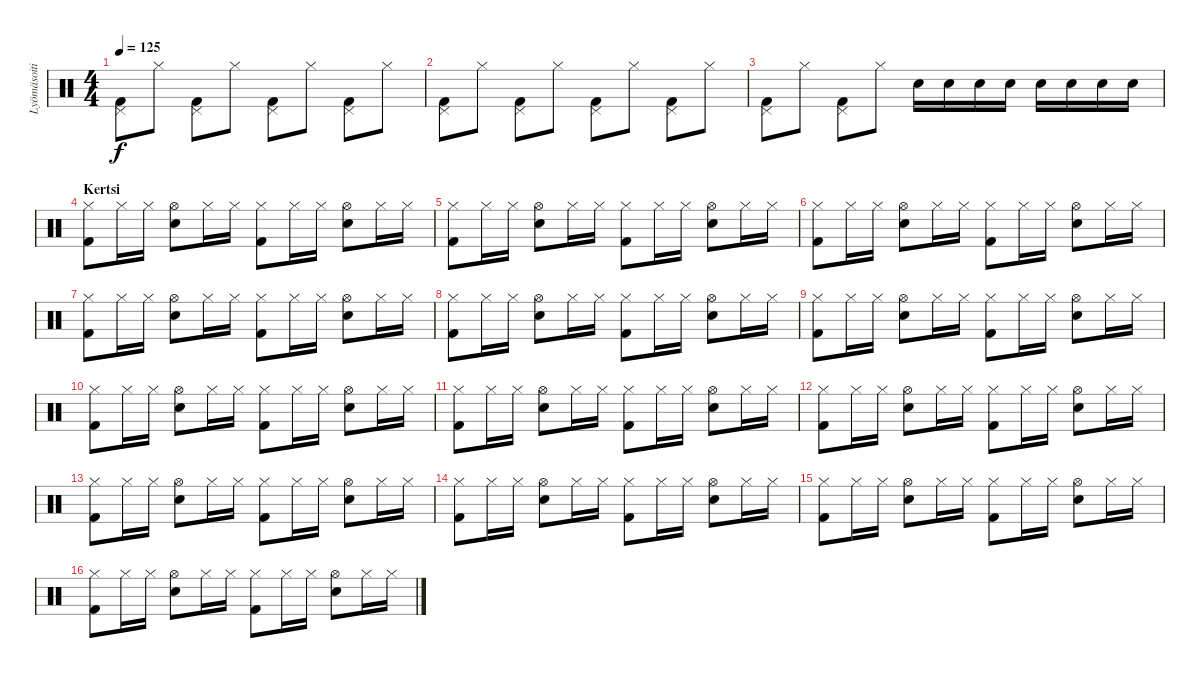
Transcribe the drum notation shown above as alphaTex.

\track ("Lyömäsoitin" "Lyömäsoiti") {instrument percussion}
\staff {score}
\articulation defaults
\ts (4 4)
\tempo 125
\clef neutral
\ks c
("Pedal Hi-Hat (hit)" "Kick (hit) 2").8{dy f} "Hi-Hat (closed)".8 ("Pedal Hi-Hat (hit)" "Kick (hit) 2").8 "Hi-Hat (closed)".8 ("Pedal Hi-Hat (hit)" "Kick (hit) 2").8 "Hi-Hat (closed)".8 ("Pedal Hi-Hat (hit)" "Kick (hit) 2").8 "Hi-Hat (closed)".8 |
("Pedal Hi-Hat (hit)" "Kick (hit) 2").8 "Hi-Hat (closed)".8 ("Pedal Hi-Hat (hit)" "Kick (hit) 2").8 "Hi-Hat (closed)".8 ("Pedal Hi-Hat (hit)" "Kick (hit) 2").8 "Hi-Hat (closed)".8 ("Pedal Hi-Hat (hit)" "Kick (hit) 2").8 "Hi-Hat (closed)".8 |
("Pedal Hi-Hat (hit)" "Kick (hit) 2").8 "Hi-Hat (closed)".8 ("Pedal Hi-Hat (hit)" "Kick (hit) 2").8 "Hi-Hat (closed)".8 "Snare (hit) 2".16 "Snare (hit) 2".16 "Snare (hit) 2".16 "Snare (hit) 2".16 "Snare (hit) 2".16 "Snare (hit) 2".16 "Snare (hit) 2".16 "Snare (hit) 2".16 |
\section ("" "Kertsi")
("Hi-Hat (closed)" "Kick (hit) 2").8 "Hi-Hat (closed)".16 "Hi-Hat (closed)".16 ("Hi-Hat (open)" "Snare (hit) 2").8 "Hi-Hat (closed)".16 "Hi-Hat (closed)".16 ("Hi-Hat (closed)" "Kick (hit) 2").8 "Hi-Hat (closed)".16 "Hi-Hat (closed)".16 ("Hi-Hat (open)" "Snare (hit) 2").8 "Hi-Hat (closed)".16 "Hi-Hat (closed)".16 |
("Hi-Hat (closed)" "Kick (hit) 2").8 "Hi-Hat (closed)".16 "Hi-Hat (closed)".16 ("Hi-Hat (open)" "Snare (hit) 2").8 "Hi-Hat (closed)".16 "Hi-Hat (closed)".16 ("Hi-Hat (closed)" "Kick (hit) 2").8 "Hi-Hat (closed)".16 "Hi-Hat (closed)".16 ("Hi-Hat (open)" "Snare (hit) 2").8 "Hi-Hat (closed)".16 "Hi-Hat (closed)".16 |
("Hi-Hat (closed)" "Kick (hit) 2").8 "Hi-Hat (closed)".16 "Hi-Hat (closed)".16 ("Hi-Hat (open)" "Snare (hit) 2").8 "Hi-Hat (closed)".16 "Hi-Hat (closed)".16 ("Hi-Hat (closed)" "Kick (hit) 2").8 "Hi-Hat (closed)".16 "Hi-Hat (closed)".16 ("Hi-Hat (open)" "Snare (hit) 2").8 "Hi-Hat (closed)".16 "Hi-Hat (closed)".16 |
("Hi-Hat (closed)" "Kick (hit) 2").8 "Hi-Hat (closed)".16 "Hi-Hat (closed)".16 ("Hi-Hat (open)" "Snare (hit) 2").8 "Hi-Hat (closed)".16 "Hi-Hat (closed)".16 ("Hi-Hat (closed)" "Kick (hit) 2").8 "Hi-Hat (closed)".16 "Hi-Hat (closed)".16 ("Hi-Hat (open)" "Snare (hit) 2").8 "Hi-Hat (closed)".16 "Hi-Hat (closed)".16 |
("Hi-Hat (closed)" "Kick (hit) 2").8 "Hi-Hat (closed)".16 "Hi-Hat (closed)".16 ("Hi-Hat (open)" "Snare (hit) 2").8 "Hi-Hat (closed)".16 "Hi-Hat (closed)".16 ("Hi-Hat (closed)" "Kick (hit) 2").8 "Hi-Hat (closed)".16 "Hi-Hat (closed)".16 ("Hi-Hat (open)" "Snare (hit) 2").8 "Hi-Hat (closed)".16 "Hi-Hat (closed)".16 |
("Hi-Hat (closed)" "Kick (hit) 2").8 "Hi-Hat (closed)".16 "Hi-Hat (closed)".16 ("Hi-Hat (open)" "Snare (hit) 2").8 "Hi-Hat (closed)".16 "Hi-Hat (closed)".16 ("Hi-Hat (closed)" "Kick (hit) 2").8 "Hi-Hat (closed)".16 "Hi-Hat (closed)".16 ("Hi-Hat (open)" "Snare (hit) 2").8 "Hi-Hat (closed)".16 "Hi-Hat (closed)".16 |
("Hi-Hat (closed)" "Kick (hit) 2").8 "Hi-Hat (closed)".16 "Hi-Hat (closed)".16 ("Hi-Hat (open)" "Snare (hit) 2").8 "Hi-Hat (closed)".16 "Hi-Hat (closed)".16 ("Hi-Hat (closed)" "Kick (hit) 2").8 "Hi-Hat (closed)".16 "Hi-Hat (closed)".16 ("Hi-Hat (open)" "Snare (hit) 2").8 "Hi-Hat (closed)".16 "Hi-Hat (closed)".16 |
("Hi-Hat (closed)" "Kick (hit) 2").8 "Hi-Hat (closed)".16 "Hi-Hat (closed)".16 ("Hi-Hat (open)" "Snare (hit) 2").8 "Hi-Hat (closed)".16 "Hi-Hat (closed)".16 ("Hi-Hat (closed)" "Kick (hit) 2").8 "Hi-Hat (closed)".16 "Hi-Hat (closed)".16 ("Hi-Hat (open)" "Snare (hit) 2").8 "Hi-Hat (closed)".16 "Hi-Hat (closed)".16 |
("Hi-Hat (closed)" "Kick (hit) 2").8 "Hi-Hat (closed)".16 "Hi-Hat (closed)".16 ("Hi-Hat (open)" "Snare (hit) 2").8 "Hi-Hat (closed)".16 "Hi-Hat (closed)".16 ("Hi-Hat (closed)" "Kick (hit) 2").8 "Hi-Hat (closed)".16 "Hi-Hat (closed)".16 ("Hi-Hat (open)" "Snare (hit) 2").8 "Hi-Hat (closed)".16 "Hi-Hat (closed)".16 |
("Hi-Hat (closed)" "Kick (hit) 2").8 "Hi-Hat (closed)".16 "Hi-Hat (closed)".16 ("Hi-Hat (open)" "Snare (hit) 2").8 "Hi-Hat (closed)".16 "Hi-Hat (closed)".16 ("Hi-Hat (closed)" "Kick (hit) 2").8 "Hi-Hat (closed)".16 "Hi-Hat (closed)".16 ("Hi-Hat (open)" "Snare (hit) 2").8 "Hi-Hat (closed)".16 "Hi-Hat (closed)".16 |
("Hi-Hat (closed)" "Kick (hit) 2").8 "Hi-Hat (closed)".16 "Hi-Hat (closed)".16 ("Hi-Hat (open)" "Snare (hit) 2").8 "Hi-Hat (closed)".16 "Hi-Hat (closed)".16 ("Hi-Hat (closed)" "Kick (hit) 2").8 "Hi-Hat (closed)".16 "Hi-Hat (closed)".16 ("Hi-Hat (open)" "Snare (hit) 2").8 "Hi-Hat (closed)".16 "Hi-Hat (closed)".16 |
("Hi-Hat (closed)" "Kick (hit) 2").8 "Hi-Hat (closed)".16 "Hi-Hat (closed)".16 ("Hi-Hat (open)" "Snare (hit) 2").8 "Hi-Hat (closed)".16 "Hi-Hat (closed)".16 ("Hi-Hat (closed)" "Kick (hit) 2").8 "Hi-Hat (closed)".16 "Hi-Hat (closed)".16 ("Hi-Hat (open)" "Snare (hit) 2").8 "Hi-Hat (closed)".16 "Hi-Hat (closed)".16 |
("Hi-Hat (closed)" "Kick (hit) 2").8 "Hi-Hat (closed)".16 "Hi-Hat (closed)".16 ("Hi-Hat (open)" "Snare (hit) 2").8 "Hi-Hat (closed)".16 "Hi-Hat (closed)".16 ("Hi-Hat (closed)" "Kick (hit) 2").8 "Hi-Hat (closed)".16 "Hi-Hat (closed)".16 ("Hi-Hat (open)" "Snare (hit) 2").8 "Hi-Hat (closed)".16 "Hi-Hat (closed)".16
